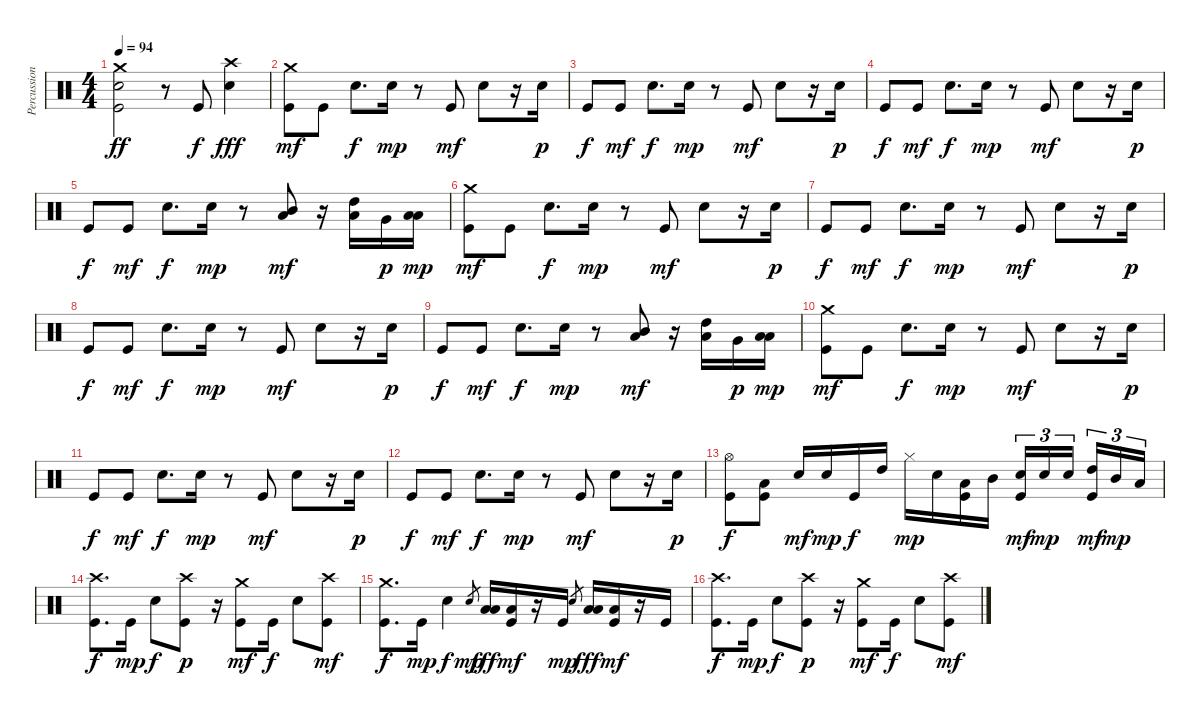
\track ("Percussions" "Percussion") {instrument percussion}
\staff {score}
\articulation defaults
\ts (4 4)
\tempo 94
\clef neutral
\ks c
("Crash medium (hit)" "Snare (hit) 2" "Kick (hit)").2{dy ff} r.8 "Kick (hit)".8{dy f} ("Crash high (hit)" "Snare (hit) 2").4{dy fff} |
("Crash medium (hit)" "Kick (hit)").8{dy mf} "Kick (hit)".8 "Snare (hit) 2".8{d dy f} "Snare (hit) 2".16{dy mp} r.8 "Kick (hit)".8{dy mf} "Snare (hit) 2".8 r.16 "Snare (hit) 2".16{dy p} |
"Kick (hit)".8{dy f} "Kick (hit)".8{dy mf} "Snare (hit) 2".8{d dy f} "Snare (hit) 2".16{dy mp} r.8 "Kick (hit)".8{dy mf} "Snare (hit) 2".8 r.16 "Snare (hit) 2".16{dy p} |
"Kick (hit)".8{dy f} "Kick (hit)".8{dy mf} "Snare (hit) 2".8{d dy f} "Snare (hit) 2".16{dy mp} r.8 "Kick (hit)".8{dy mf} "Snare (hit) 2".8 r.16 "Snare (hit) 2".16{dy p} |
"Kick (hit)".8{dy f} "Kick (hit)".8{dy mf} "Snare (hit) 2".8{d dy f} "Snare (hit) 2".16{dy mp} r.8 ("Low Tom (hit)" "Mid Tom (hit)").8{dy mf} r.16 ("Low Tom (hit)" "High Tom (hit)").16 "Very Low Tom (hit)".16{dy p} ("Low Tom (hit)" "Low Floor Tom (hit)").16{dy mp} |
("Crash medium (hit)" "Kick (hit)").8{dy mf} "Kick (hit)".8 "Snare (hit) 2".8{d dy f} "Snare (hit) 2".16{dy mp} r.8 "Kick (hit)".8{dy mf} "Snare (hit) 2".8 r.16 "Snare (hit) 2".16{dy p} |
"Kick (hit)".8{dy f} "Kick (hit)".8{dy mf} "Snare (hit) 2".8{d dy f} "Snare (hit) 2".16{dy mp} r.8 "Kick (hit)".8{dy mf} "Snare (hit) 2".8 r.16 "Snare (hit) 2".16{dy p} |
"Kick (hit)".8{dy f} "Kick (hit)".8{dy mf} "Snare (hit) 2".8{d dy f} "Snare (hit) 2".16{dy mp} r.8 "Kick (hit)".8{dy mf} "Snare (hit) 2".8 r.16 "Snare (hit) 2".16{dy p} |
"Kick (hit)".8{dy f} "Kick (hit)".8{dy mf} "Snare (hit) 2".8{d dy f} "Snare (hit) 2".16{dy mp} r.8 ("Low Tom (hit)" "Mid Tom (hit)").8{dy mf} r.16 ("Low Tom (hit)" "High Tom (hit)").16 "Very Low Tom (hit)".16{dy p} ("Low Tom (hit)" "Low Floor Tom (hit)").16{dy mp} |
("Crash medium (hit)" "Kick (hit)").8{dy mf} "Kick (hit)".8 "Snare (hit) 2".8{d dy f} "Snare (hit) 2".16{dy mp} r.8 "Kick (hit)".8{dy mf} "Snare (hit) 2".8 r.16 "Snare (hit) 2".16{dy p} |
"Kick (hit)".8{dy f} "Kick (hit)".8{dy mf} "Snare (hit) 2".8{d dy f} "Snare (hit) 2".16{dy mp} r.8 "Kick (hit)".8{dy mf} "Snare (hit) 2".8 r.16 "Snare (hit) 2".16{dy p} |
"Kick (hit)".8{dy f} "Kick (hit)".8{dy mf} "Snare (hit) 2".8{d dy f} "Snare (hit) 2".16{dy mp} r.8 "Kick (hit)".8{dy mf} "Snare (hit) 2".8 r.16 "Snare (hit) 2".16{dy p} |
("Hi-Hat (open)" "Kick (hit)").8{dy f} ("Low Tom (hit)" "Kick (hit)").8 "Snare (hit) 2".16{dy mf} "Snare (hit) 2".16{dy mp} "Kick (hit)".16{dy f} "High Tom (hit)".16 "Hi-Hat (closed)".16{dy mp} "Snare (hit) 2".16 ("Low Tom (hit)" "Kick (hit)").16 "Mid Tom (hit)".16 ("Snare (hit) 2" "Kick (hit)").16{tu (3 2) dy mf} "Snare (hit) 2".16{tu (3 2) dy mp} "Snare (hit) 2".16{tu (3 2) beam splitsecondary} ("High Tom (hit)" "Kick (hit)").16{tu (3 2) dy mf} "Mid Tom (hit)".16{tu (3 2) dy mp} "Low Tom (hit)".16{tu (3 2)} |
("Crash high (hit)" "Kick (hit)").8{d dy f} "Kick (hit)".16{dy mp} "Snare (hit) 2".8{dy f} ("Crash high (hit)" "Kick (hit)").8{dy p} r.16 ("Crash medium (hit)" "Kick (hit)").8{dy mf} "Kick (hit)".16{dy f} "Snare (hit) 2".8 ("Crash high (hit)" "Kick (hit)").8{dy mf} |
("Crash medium (hit)" "Kick (hit)").8{d dy f} "Kick (hit)".16{dy mp} "Snare (hit) 2".4{dy f} "Snare (hit) 2".8{gr dy mp} ("Low Tom (hit)" "Low Floor Tom (hit)").16{dy fff} ("Low Floor Tom (hit)" "Kick (hit)").16{dy mf} r.16 "Kick (hit)".16{dy mp} "Snare (hit) 2".8{gr} ("Low Tom (hit)" "Low Floor Tom (hit)").16{dy fff} ("Low Floor Tom (hit)" "Kick (hit)").16{dy mf} r.16 "Kick (hit)".16 |
("Crash high (hit)" "Kick (hit)").8{d dy f} "Kick (hit)".16{dy mp} "Snare (hit) 2".8{dy f} ("Crash high (hit)" "Kick (hit)").8{dy p} r.16 ("Crash medium (hit)" "Kick (hit)").8{dy mf} "Kick (hit)".16{dy f} "Snare (hit) 2".8 ("Crash high (hit)" "Kick (hit)").8{dy mf}
